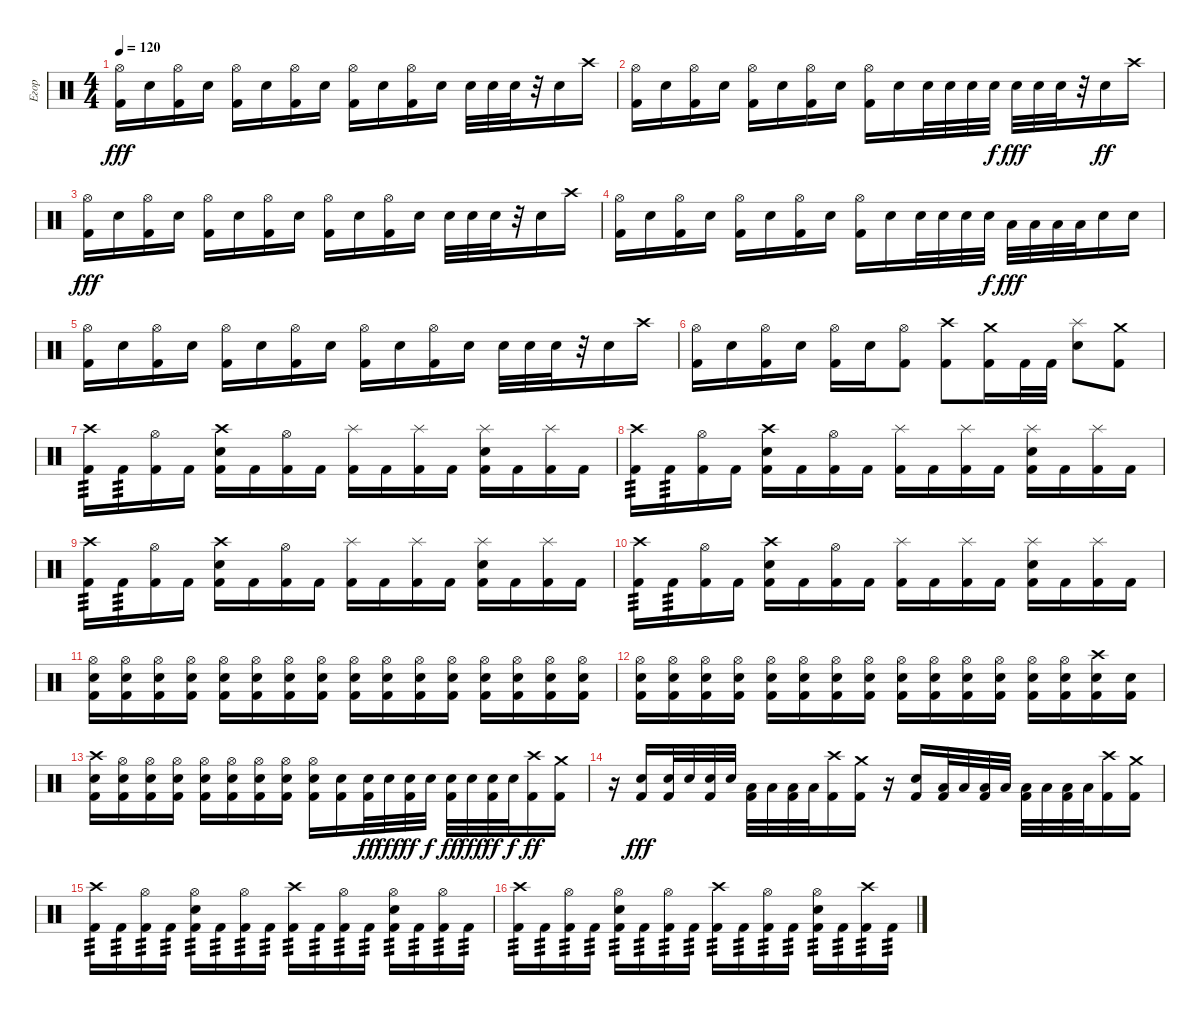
\track ("Егор" "Егор") {instrument percussion}
\staff {score}
\articulation defaults
\ts (4 4)
\tempo 120
\clef neutral
\ks c
("Hi-Hat (open)" "Kick (hit) 2").16{dy fff} "Snare (hit) 2".16 ("Hi-Hat (open)" "Kick (hit) 2").16 "Snare (hit) 2".16 ("Hi-Hat (open)" "Kick (hit) 2").16 "Snare (hit) 2".16 ("Hi-Hat (open)" "Kick (hit) 2").16 "Snare (hit) 2".16 ("Hi-Hat (open)" "Kick (hit) 2").16 "Snare (hit) 2".16 ("Hi-Hat (open)" "Kick (hit) 2").16 "Snare (hit) 2".16 "Snare (hit) 2".32 "Snare (hit) 2".32 "Snare (hit) 2".32 r.32 "Snare (hit) 2".16 "Crash high (hit)".16 |
("Hi-Hat (open)" "Kick (hit) 2").16 "Snare (hit) 2".16 ("Hi-Hat (open)" "Kick (hit) 2").16 "Snare (hit) 2".16 ("Hi-Hat (open)" "Kick (hit) 2").16 "Snare (hit) 2".16 ("Hi-Hat (open)" "Kick (hit) 2").16 "Snare (hit) 2".16 ("Hi-Hat (open)" "Kick (hit) 2").16 "Snare (hit) 2".16 "Snare (hit) 2".32 "Snare (hit) 2".32 "Snare (hit) 2".32 "Snare (hit) 2".32{dy f} "Snare (hit) 2".32{dy fff} "Snare (hit) 2".32 "Snare (hit) 2".32 r.32 "Snare (hit) 2".16{dy ff} "Crash high (hit)".16 |
("Hi-Hat (open)" "Kick (hit) 2").16{dy fff} "Snare (hit) 2".16 ("Hi-Hat (open)" "Kick (hit) 2").16 "Snare (hit) 2".16 ("Hi-Hat (open)" "Kick (hit) 2").16 "Snare (hit) 2".16 ("Hi-Hat (open)" "Kick (hit) 2").16 "Snare (hit) 2".16 ("Hi-Hat (open)" "Kick (hit) 2").16 "Snare (hit) 2".16 ("Hi-Hat (open)" "Kick (hit) 2").16 "Snare (hit) 2".16 "Snare (hit) 2".32 "Snare (hit) 2".32 "Snare (hit) 2".32 r.32 "Snare (hit) 2".16 "Crash high (hit)".16 |
("Hi-Hat (open)" "Kick (hit) 2").16 "Snare (hit) 2".16 ("Hi-Hat (open)" "Kick (hit) 2").16 "Snare (hit) 2".16 ("Hi-Hat (open)" "Kick (hit) 2").16 "Snare (hit) 2".16 ("Hi-Hat (open)" "Kick (hit) 2").16 "Snare (hit) 2".16 ("Hi-Hat (open)" "Kick (hit) 2").16 "Snare (hit) 2".16 "Snare (hit) 2".32 "Snare (hit) 2".32 "Snare (hit) 2".32 "Snare (hit) 2".32{dy f} "Low Tom (hit)".32{dy fff} "Low Tom (hit)".32 "Low Tom (hit)".32 "Low Tom (hit)".32 "Snare (hit) 2".16 "Snare (hit) 2".16 |
("Hi-Hat (open)" "Kick (hit) 2").16 "Snare (hit) 2".16 ("Hi-Hat (open)" "Kick (hit) 2").16 "Snare (hit) 2".16 ("Hi-Hat (open)" "Kick (hit) 2").16 "Snare (hit) 2".16 ("Hi-Hat (open)" "Kick (hit) 2").16 "Snare (hit) 2".16 ("Hi-Hat (open)" "Kick (hit) 2").16 "Snare (hit) 2".16 ("Hi-Hat (open)" "Kick (hit) 2").16 "Snare (hit) 2".16 "Snare (hit) 2".32 "Snare (hit) 2".32 "Snare (hit) 2".32 r.32 "Snare (hit) 2".16 "Crash high (hit)".16 |
("Hi-Hat (open)" "Kick (hit) 2").16 "Snare (hit) 2".16 ("Hi-Hat (open)" "Kick (hit) 2").16 "Snare (hit) 2".16 ("Hi-Hat (open)" "Kick (hit) 2").16 "Snare (hit) 2".16 ("Hi-Hat (open)" "Kick (hit) 2").8 ("Crash high (hit)" "Kick (hit) 2").8 ("Crash medium (hit)" "Kick (hit) 2").16 "Kick (hit) 2".32 "Kick (hit) 2".32 ("Splash (hit)" "Snare (hit) 2").8 ("Crash medium (hit)" "Kick (hit) 2").8 |
("Crash high (hit)" "Kick (hit) 2").16{tp 3} "Kick (hit) 2".16{tp 3} ("Hi-Hat (open)" "Kick (hit) 2").16 "Kick (hit) 2".16 ("Crash high (hit)" "Snare (hit) 2" "Kick (hit) 2").16 "Kick (hit) 2".16 ("Hi-Hat (open)" "Kick (hit) 2").16 "Kick (hit) 2".16 ("Splash (hit)" "Kick (hit) 2").16 "Kick (hit) 2".16 ("Splash (hit)" "Kick (hit) 2").16 "Kick (hit) 2".16 ("Splash (hit)" "Snare (hit) 2" "Kick (hit) 2").16 "Kick (hit) 2".16 ("Splash (hit)" "Kick (hit) 2").16 "Kick (hit) 2".16 |
("Crash high (hit)" "Kick (hit) 2").16{tp 3} "Kick (hit) 2".16{tp 3} ("Hi-Hat (open)" "Kick (hit) 2").16 "Kick (hit) 2".16 ("Crash high (hit)" "Snare (hit) 2" "Kick (hit) 2").16 "Kick (hit) 2".16 ("Hi-Hat (open)" "Kick (hit) 2").16 "Kick (hit) 2".16 ("Splash (hit)" "Kick (hit) 2").16 "Kick (hit) 2".16 ("Splash (hit)" "Kick (hit) 2").16 "Kick (hit) 2".16 ("Splash (hit)" "Snare (hit) 2" "Kick (hit) 2").16 "Kick (hit) 2".16 ("Splash (hit)" "Kick (hit) 2").16 "Kick (hit) 2".16 |
("Crash high (hit)" "Kick (hit) 2").16{tp 3} "Kick (hit) 2".16{tp 3} ("Hi-Hat (open)" "Kick (hit) 2").16 "Kick (hit) 2".16 ("Crash high (hit)" "Snare (hit) 2" "Kick (hit) 2").16 "Kick (hit) 2".16 ("Hi-Hat (open)" "Kick (hit) 2").16 "Kick (hit) 2".16 ("Splash (hit)" "Kick (hit) 2").16 "Kick (hit) 2".16 ("Splash (hit)" "Kick (hit) 2").16 "Kick (hit) 2".16 ("Splash (hit)" "Snare (hit) 2" "Kick (hit) 2").16 "Kick (hit) 2".16 ("Splash (hit)" "Kick (hit) 2").16 "Kick (hit) 2".16 |
("Crash high (hit)" "Kick (hit) 2").16{tp 3} "Kick (hit) 2".16{tp 3} ("Hi-Hat (open)" "Kick (hit) 2").16 "Kick (hit) 2".16 ("Crash high (hit)" "Snare (hit) 2" "Kick (hit) 2").16 "Kick (hit) 2".16 ("Hi-Hat (open)" "Kick (hit) 2").16 "Kick (hit) 2".16 ("Splash (hit)" "Kick (hit) 2").16 "Kick (hit) 2".16 ("Splash (hit)" "Kick (hit) 2").16 "Kick (hit) 2".16 ("Splash (hit)" "Snare (hit) 2" "Kick (hit) 2").16 "Kick (hit) 2".16 ("Splash (hit)" "Kick (hit) 2").16 "Kick (hit) 2".16 |
("Hi-Hat (open)" "Snare (hit) 2" "Kick (hit) 2").16 ("Hi-Hat (open)" "Snare (hit) 2" "Kick (hit) 2").16 ("Hi-Hat (open)" "Snare (hit) 2" "Kick (hit) 2").16 ("Hi-Hat (open)" "Snare (hit) 2" "Kick (hit) 2").16 ("Hi-Hat (open)" "Snare (hit) 2" "Kick (hit) 2").16 ("Hi-Hat (open)" "Snare (hit) 2" "Kick (hit) 2").16 ("Hi-Hat (open)" "Snare (hit) 2" "Kick (hit) 2").16 ("Hi-Hat (open)" "Snare (hit) 2" "Kick (hit) 2").16 ("Hi-Hat (open)" "Snare (hit) 2" "Kick (hit) 2").16 ("Hi-Hat (open)" "Snare (hit) 2" "Kick (hit) 2").16 ("Hi-Hat (open)" "Snare (hit) 2" "Kick (hit) 2").16 ("Hi-Hat (open)" "Snare (hit) 2" "Kick (hit) 2").16 ("Hi-Hat (open)" "Snare (hit) 2" "Kick (hit) 2").16 ("Hi-Hat (open)" "Snare (hit) 2" "Kick (hit) 2").16 ("Hi-Hat (open)" "Snare (hit) 2" "Kick (hit) 2").16 ("Hi-Hat (open)" "Snare (hit) 2" "Kick (hit) 2").16 |
("Hi-Hat (open)" "Snare (hit) 2" "Kick (hit) 2").16 ("Hi-Hat (open)" "Snare (hit) 2" "Kick (hit) 2").16 ("Hi-Hat (open)" "Snare (hit) 2" "Kick (hit) 2").16 ("Hi-Hat (open)" "Snare (hit) 2" "Kick (hit) 2").16 ("Hi-Hat (open)" "Snare (hit) 2" "Kick (hit) 2").16 ("Hi-Hat (open)" "Snare (hit) 2" "Kick (hit) 2").16 ("Hi-Hat (open)" "Snare (hit) 2" "Kick (hit) 2").16 ("Hi-Hat (open)" "Snare (hit) 2" "Kick (hit) 2").16 ("Hi-Hat (open)" "Snare (hit) 2" "Kick (hit) 2").16 ("Hi-Hat (open)" "Snare (hit) 2" "Kick (hit) 2").16 ("Hi-Hat (open)" "Snare (hit) 2" "Kick (hit) 2").16 ("Hi-Hat (open)" "Snare (hit) 2" "Kick (hit) 2").16 ("Hi-Hat (open)" "Snare (hit) 2" "Kick (hit) 2").16 ("Hi-Hat (open)" "Snare (hit) 2" "Kick (hit) 2").16 ("Crash high (hit)" "Snare (hit) 2" "Kick (hit) 2").16 ("Snare (hit) 2" "Kick (hit) 2").16 |
("Crash high (hit)" "Snare (hit) 2" "Kick (hit) 2").16 ("Hi-Hat (open)" "Snare (hit) 2" "Kick (hit) 2").16 ("Hi-Hat (open)" "Snare (hit) 2" "Kick (hit) 2").16 ("Hi-Hat (open)" "Snare (hit) 2" "Kick (hit) 2").16 ("Hi-Hat (open)" "Snare (hit) 2" "Kick (hit) 2").16 ("Hi-Hat (open)" "Snare (hit) 2" "Kick (hit) 2").16 ("Hi-Hat (open)" "Snare (hit) 2" "Kick (hit) 2").16 ("Hi-Hat (open)" "Snare (hit) 2" "Kick (hit) 2").16 ("Hi-Hat (open)" "Snare (hit) 2" "Kick (hit) 2").16 ("Snare (hit) 2" "Kick (hit) 2").16 ("Snare (hit) 2" "Kick (hit) 2").32{dy ff} "Snare (hit) 2".32{dy fff} ("Snare (hit) 2" "Kick (hit) 2").32{dy ff} "Snare (hit) 2".32{dy f} ("Snare (hit) 2" "Kick (hit) 2").32{dy ff} "Snare (hit) 2".32{dy fff} ("Snare (hit) 2" "Kick (hit) 2").32{dy ff} "Snare (hit) 2".32{dy f} ("Crash high (hit)" "Kick (hit) 2").16{dy ff} ("Crash medium (hit)" "Kick (hit) 2").16 |
r.16 ("Snare (hit) 2" "Kick (hit) 2").16{dy fff} ("Snare (hit) 2" "Kick (hit) 2").32 "Snare (hit) 2".32 ("Snare (hit) 2" "Kick (hit) 2").32 "Snare (hit) 2".32 ("Low Tom (hit)" "Kick (hit) 2").32 "Low Tom (hit)".32 ("Low Tom (hit)" "Kick (hit) 2").32 "Low Tom (hit)".32 ("Crash high (hit)" "Kick (hit) 2").16 ("Crash medium (hit)" "Kick (hit) 2").16 r.16 ("Snare (hit) 2" "Kick (hit) 2").16 ("Low Tom (hit)" "Kick (hit) 2").32 "Low Tom (hit)".32 ("Low Tom (hit)" "Kick (hit) 2").32 "Low Tom (hit)".32 ("Low Floor Tom (hit)" "Kick (hit) 2").32 "Low Floor Tom (hit)".32 ("Low Floor Tom (hit)" "Kick (hit) 2").32 "Low Floor Tom (hit)".32 ("Crash high (hit)" "Kick (hit) 2").16 ("Crash medium (hit)" "Kick (hit) 2").16 |
("Crash high (hit)" "Kick (hit) 2").16{tp 3} "Kick (hit) 2".16{tp 3} ("Hi-Hat (open)" "Kick (hit) 2").16{tp 3} "Kick (hit) 2".16{tp 3} ("Hi-Hat (open)" "Snare (hit) 2" "Kick (hit) 2").16{tp 3} "Kick (hit) 2".16{tp 3} ("Hi-Hat (open)" "Kick (hit) 2").16{tp 3} "Kick (hit) 2".16{tp 3} ("Crash high (hit)" "Kick (hit) 2").16{tp 3} "Kick (hit) 2".16{tp 3} ("Hi-Hat (open)" "Kick (hit) 2").16{tp 3} "Kick (hit) 2".16{tp 3} ("Hi-Hat (open)" "Snare (hit) 2" "Kick (hit) 2").16{tp 3} "Kick (hit) 2".16{tp 3} ("Hi-Hat (open)" "Kick (hit) 2").16{tp 3} "Kick (hit) 2".16{tp 3} |
("Crash high (hit)" "Kick (hit) 2").16{tp 3} "Kick (hit) 2".16{tp 3} ("Hi-Hat (open)" "Kick (hit) 2").16{tp 3} "Kick (hit) 2".16{tp 3} ("Hi-Hat (open)" "Snare (hit) 2" "Kick (hit) 2").16{tp 3} "Kick (hit) 2".16{tp 3} ("Hi-Hat (open)" "Kick (hit) 2").16{tp 3} "Kick (hit) 2".16{tp 3} ("Crash high (hit)" "Kick (hit) 2").16{tp 3} "Kick (hit) 2".16{tp 3} ("Hi-Hat (open)" "Kick (hit) 2").16{tp 3} "Kick (hit) 2".16{tp 3} ("Hi-Hat (open)" "Snare (hit) 2" "Kick (hit) 2").16{tp 3} "Kick (hit) 2".16{tp 3} ("Crash high (hit)" "Kick (hit) 2").16{tp 3} "Kick (hit) 2".16{tp 3}
